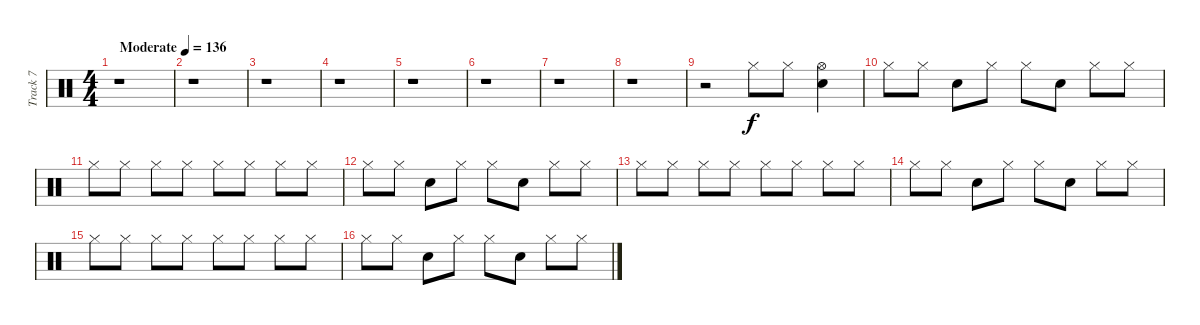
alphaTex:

\track ("Track 7" "Track 7") {instrument percussion}
\staff {score}
\articulation defaults
\ts (4 4)
\tempo (136 "Moderate")
\clef neutral
\ks c
r.1{dy f} |
r.1 |
r.1 |
r.1 |
r.1 |
r.1 |
r.1 |
r.1 |
r.2 "Hi-Hat (closed)".8 "Hi-Hat (closed)".8 ("Hi-Hat (open)" "Electric Snare (hit)").4 |
"Hi-Hat (closed)".8 "Hi-Hat (closed)".8 "Electric Snare (hit)".8 "Hi-Hat (closed)".8 "Hi-Hat (closed)".8 "Electric Snare (hit)".8 "Hi-Hat (closed)".8 "Hi-Hat (closed)".8 |
"Hi-Hat (closed)".8 "Hi-Hat (closed)".8 "Hi-Hat (closed)".8 "Hi-Hat (closed)".8 "Hi-Hat (closed)".8 "Hi-Hat (closed)".8 "Hi-Hat (closed)".8 "Hi-Hat (closed)".8 |
"Hi-Hat (closed)".8 "Hi-Hat (closed)".8 "Electric Snare (hit)".8 "Hi-Hat (closed)".8 "Hi-Hat (closed)".8 "Electric Snare (hit)".8 "Hi-Hat (closed)".8 "Hi-Hat (closed)".8 |
"Hi-Hat (closed)".8 "Hi-Hat (closed)".8 "Hi-Hat (closed)".8 "Hi-Hat (closed)".8 "Hi-Hat (closed)".8 "Hi-Hat (closed)".8 "Hi-Hat (closed)".8 "Hi-Hat (closed)".8 |
"Hi-Hat (closed)".8 "Hi-Hat (closed)".8 "Electric Snare (hit)".8 "Hi-Hat (closed)".8 "Hi-Hat (closed)".8 "Electric Snare (hit)".8 "Hi-Hat (closed)".8 "Hi-Hat (closed)".8 |
"Hi-Hat (closed)".8 "Hi-Hat (closed)".8 "Hi-Hat (closed)".8 "Hi-Hat (closed)".8 "Hi-Hat (closed)".8 "Hi-Hat (closed)".8 "Hi-Hat (closed)".8 "Hi-Hat (closed)".8 |
"Hi-Hat (closed)".8 "Hi-Hat (closed)".8 "Electric Snare (hit)".8 "Hi-Hat (closed)".8 "Hi-Hat (closed)".8 "Electric Snare (hit)".8 "Hi-Hat (closed)".8 "Hi-Hat (closed)".8
